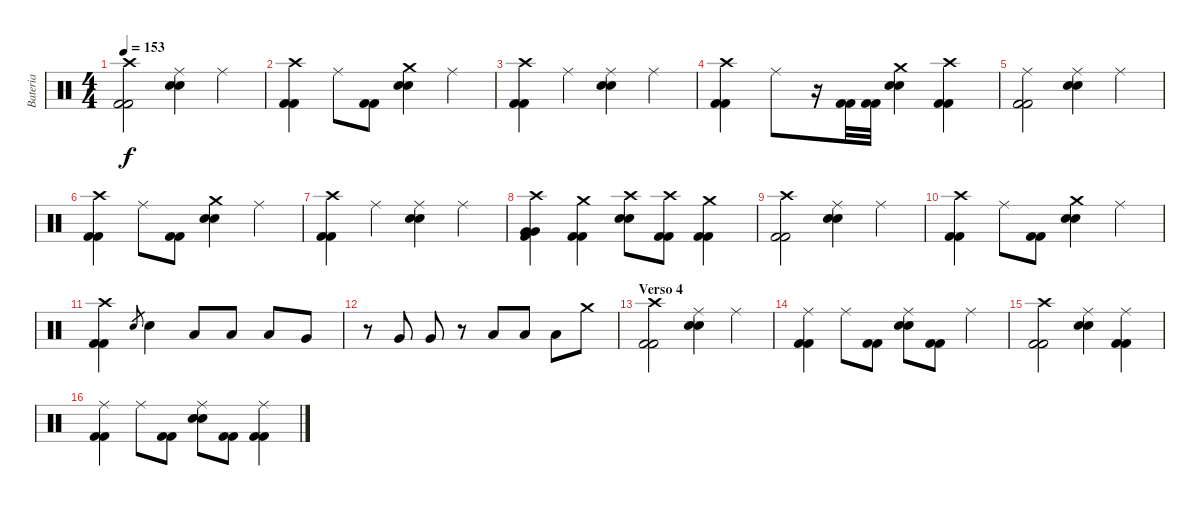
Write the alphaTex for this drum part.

\track ("Bateria" "Bateria") {instrument percussion}
\staff {score}
\articulation defaults
\ts (4 4)
\tempo 153
\clef neutral
\ks c
("Crash high (hit)" "Kick (hit) 2" "Kick (hit) 2").2{dy f} ("Ride (middle)" "Snare (hit) 2" "Snare (hit) 2").4 "Ride (middle)".4 |
("Crash high (hit)" "Kick (hit) 2" "Kick (hit) 2").4 "Ride (middle)".8 ("Kick (hit) 2" "Kick (hit) 2").8 ("Crash medium (hit)" "Snare (hit) 2" "Snare (hit) 2").4 "Ride (middle)".4 |
("Crash high (hit)" "Kick (hit) 2" "Kick (hit) 2").4 "Ride (middle)".4 ("Ride (middle)" "Snare (hit) 2" "Snare (hit) 2").4 "Ride (middle)".4 |
("Crash high (hit)" "Kick (hit) 2" "Kick (hit) 2").4 "Ride (middle)".8 r.16 ("Kick (hit) 2" "Kick (hit) 2").32 ("Kick (hit) 2" "Kick (hit) 2").32 ("Crash medium (hit)" "Snare (hit) 2" "Snare (hit) 2").4 ("Crash high (hit)" "Kick (hit) 2" "Kick (hit) 2").4 |
("Ride (middle)" "Kick (hit) 2" "Kick (hit) 2").2 ("Ride (middle)" "Snare (hit) 2" "Snare (hit) 2").4 "Ride (middle)".4 |
("Crash high (hit)" "Kick (hit) 2" "Kick (hit) 2").4 "Ride (middle)".8 ("Kick (hit) 2" "Kick (hit) 2").8 ("Crash medium (hit)" "Snare (hit) 2" "Snare (hit) 2").4 "Ride (middle)".4 |
("Crash high (hit)" "Kick (hit) 2" "Kick (hit) 2").4 "Ride (middle)".4 ("Ride (middle)" "Snare (hit) 2" "Snare (hit) 2").4 "Ride (middle)".4 |
("Crash high (hit)" "Very Low Tom (hit)" "Very Low Tom (hit)" "Kick (hit) 2").4 ("Crash medium (hit)" "Kick (hit) 2" "Kick (hit) 2").4 ("Crash high (hit)" "Snare (hit) 2" "Snare (hit) 2").8 ("Crash high (hit)" "Kick (hit) 2" "Kick (hit) 2").8 ("Crash medium (hit)" "Kick (hit) 2" "Kick (hit) 2").4 |
("Crash high (hit)" "Kick (hit) 2" "Kick (hit) 2").2 ("Ride (middle)" "Snare (hit) 2" "Snare (hit) 2").4 "Ride (middle)".4 |
("Crash high (hit)" "Kick (hit) 2" "Kick (hit) 2").4 "Ride (middle)".8 ("Kick (hit) 2" "Kick (hit) 2").8 ("Crash medium (hit)" "Snare (hit) 2" "Snare (hit) 2").4 "Ride (middle)".4 |
("Crash high (hit)" "Kick (hit) 2" "Kick (hit) 2").4 "Snare (hit) 2".8{gr} "Snare (hit) 2".4 "Low Tom (hit)".8 "Low Tom (hit)".8 "Low Tom (hit)".8 "Very Low Tom (hit)".8 |
r.8 "Very Low Tom (hit)".8 "Very Low Tom (hit)".8 r.8 "Low Floor Tom (hit)".8 "Low Floor Tom (hit)".8 "Low Floor Tom (hit)".8 "Crash medium (hit)".8 |
\section ("" "Verso 4")
("Crash high (hit)" "Kick (hit) 2" "Kick (hit) 2").2 ("Ride (middle)" "Snare (hit) 2" "Snare (hit) 2").4 "Ride (middle)".4 |
("Ride (middle)" "Kick (hit) 2" "Kick (hit) 2").4 "Ride (middle)".8 ("Kick (hit) 2" "Kick (hit) 2").8 ("Ride (middle)" "Snare (hit) 2" "Snare (hit) 2").8 ("Kick (hit) 2" "Kick (hit) 2").8 "Ride (middle)".4 |
("Crash high (hit)" "Kick (hit) 2" "Kick (hit) 2").2 ("Ride (middle)" "Snare (hit) 2" "Snare (hit) 2").4 ("Ride (middle)" "Kick (hit) 2" "Kick (hit) 2").4 |
("Ride (middle)" "Kick (hit) 2" "Kick (hit) 2").4 "Ride (middle)".8 ("Kick (hit) 2" "Kick (hit) 2").8 ("Ride (middle)" "Snare (hit) 2" "Snare (hit) 2").8 ("Kick (hit) 2" "Kick (hit) 2").8 ("Ride (middle)" "Kick (hit) 2" "Kick (hit) 2").4
